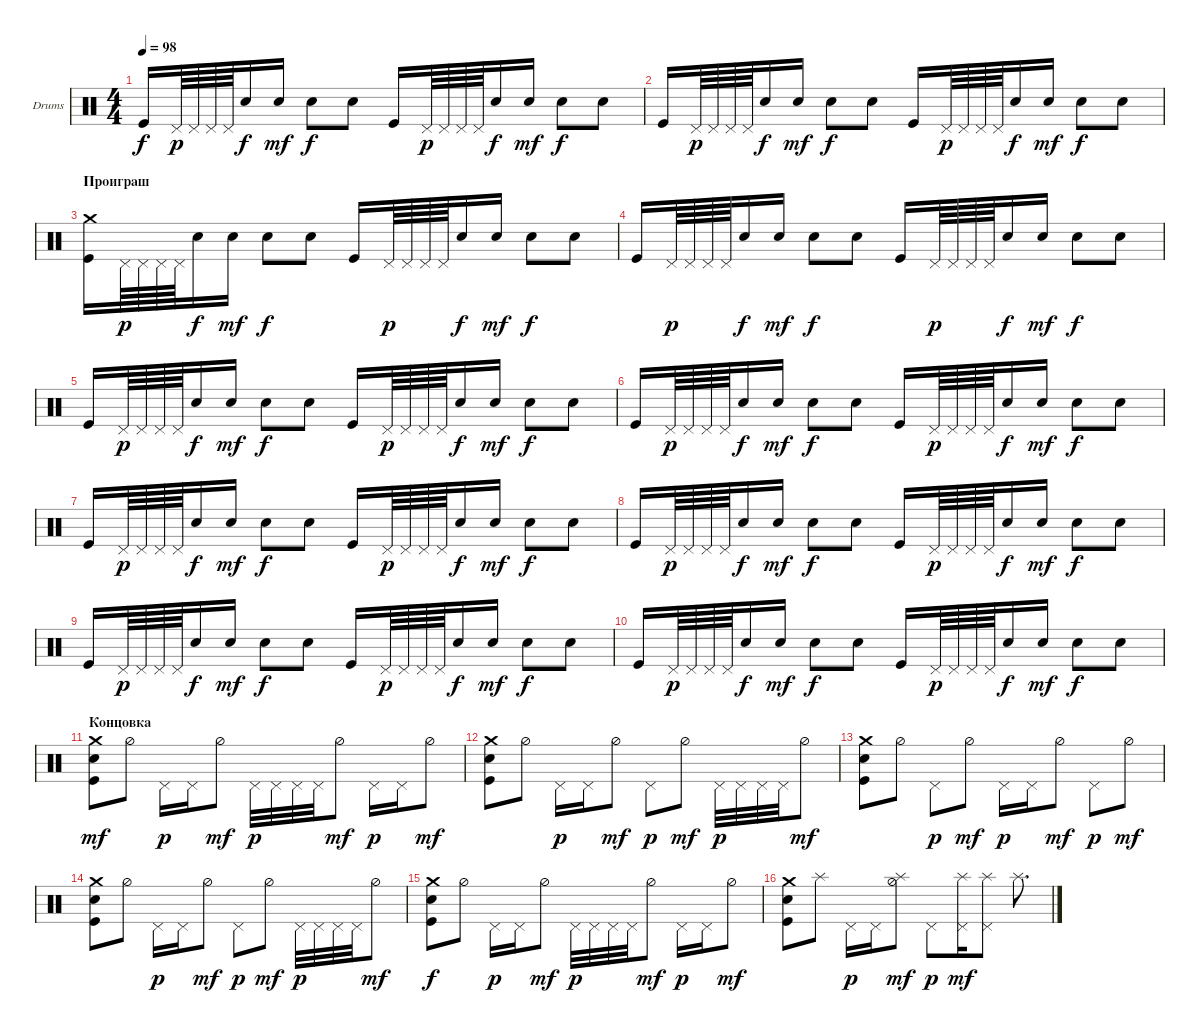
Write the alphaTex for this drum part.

\defaultSystemsLayout 4
\bracketExtendMode groupsimilarinstruments
\firstSystemTrackNameOrientation horizontal
\otherSystemsTrackNameOrientation horizontal
\track ("Е. Кулаков" "Drums") {instrument percussion}
\staff {score}
\articulation defaults
\ts (4 4)
\tempo 98
\clef neutral
\ks c "Kick (hit)".16{dy f} "Pedal Hi-Hat (hit)".64{dy p} "Pedal Hi-Hat (hit)".64 "Pedal Hi-Hat (hit)".64 "Pedal Hi-Hat (hit)".64 "Snare (hit) 2".16{dy f} "Snare (hit) 2".16{dy mf} "Snare (hit) 2".8{dy f} "Snare (hit) 2".8 "Kick (hit)".16 "Pedal Hi-Hat (hit)".64{dy p} "Pedal Hi-Hat (hit)".64 "Pedal Hi-Hat (hit)".64 "Pedal Hi-Hat (hit)".64 "Snare (hit) 2".16{dy f} "Snare (hit) 2".16{dy mf} "Snare (hit) 2".8{dy f} "Snare (hit) 2".8
|
"Kick (hit)".16 "Pedal Hi-Hat (hit)".64{dy p} "Pedal Hi-Hat (hit)".64 "Pedal Hi-Hat (hit)".64 "Pedal Hi-Hat (hit)".64 "Snare (hit) 2".16{dy f} "Snare (hit) 2".16{dy mf} "Snare (hit) 2".8{dy f} "Snare (hit) 2".8 "Kick (hit)".16 "Pedal Hi-Hat (hit)".64{dy p} "Pedal Hi-Hat (hit)".64 "Pedal Hi-Hat (hit)".64 "Pedal Hi-Hat (hit)".64 "Snare (hit) 2".16{dy f} "Snare (hit) 2".16{dy mf} "Snare (hit) 2".8{dy f} "Snare (hit) 2".8 |
\section ("" "Проиграш")
("Kick (hit)" "Crash medium (hit)").16 "Pedal Hi-Hat (hit)".64{dy p} "Pedal Hi-Hat (hit)".64 "Pedal Hi-Hat (hit)".64 "Pedal Hi-Hat (hit)".64 "Snare (hit) 2".16{dy f} "Snare (hit) 2".16{dy mf} "Snare (hit) 2".8{dy f} "Snare (hit) 2".8 "Kick (hit)".16 "Pedal Hi-Hat (hit)".64{dy p} "Pedal Hi-Hat (hit)".64 "Pedal Hi-Hat (hit)".64 "Pedal Hi-Hat (hit)".64 "Snare (hit) 2".16{dy f} "Snare (hit) 2".16{dy mf} "Snare (hit) 2".8{dy f} "Snare (hit) 2".8 |
"Kick (hit)".16 "Pedal Hi-Hat (hit)".64{dy p} "Pedal Hi-Hat (hit)".64 "Pedal Hi-Hat (hit)".64 "Pedal Hi-Hat (hit)".64 "Snare (hit) 2".16{dy f} "Snare (hit) 2".16{dy mf} "Snare (hit) 2".8{dy f} "Snare (hit) 2".8 "Kick (hit)".16 "Pedal Hi-Hat (hit)".64{dy p} "Pedal Hi-Hat (hit)".64 "Pedal Hi-Hat (hit)".64 "Pedal Hi-Hat (hit)".64 "Snare (hit) 2".16{dy f} "Snare (hit) 2".16{dy mf} "Snare (hit) 2".8{dy f} "Snare (hit) 2".8 |
"Kick (hit)".16 "Pedal Hi-Hat (hit)".64{dy p} "Pedal Hi-Hat (hit)".64 "Pedal Hi-Hat (hit)".64 "Pedal Hi-Hat (hit)".64 "Snare (hit) 2".16{dy f} "Snare (hit) 2".16{dy mf} "Snare (hit) 2".8{dy f} "Snare (hit) 2".8 "Kick (hit)".16 "Pedal Hi-Hat (hit)".64{dy p} "Pedal Hi-Hat (hit)".64 "Pedal Hi-Hat (hit)".64 "Pedal Hi-Hat (hit)".64 "Snare (hit) 2".16{dy f} "Snare (hit) 2".16{dy mf} "Snare (hit) 2".8{dy f} "Snare (hit) 2".8 |
"Kick (hit)".16 "Pedal Hi-Hat (hit)".64{dy p} "Pedal Hi-Hat (hit)".64 "Pedal Hi-Hat (hit)".64 "Pedal Hi-Hat (hit)".64 "Snare (hit) 2".16{dy f} "Snare (hit) 2".16{dy mf} "Snare (hit) 2".8{dy f} "Snare (hit) 2".8 "Kick (hit)".16 "Pedal Hi-Hat (hit)".64{dy p} "Pedal Hi-Hat (hit)".64 "Pedal Hi-Hat (hit)".64 "Pedal Hi-Hat (hit)".64 "Snare (hit) 2".16{dy f} "Snare (hit) 2".16{dy mf} "Snare (hit) 2".8{dy f} "Snare (hit) 2".8 |
"Kick (hit)".16 "Pedal Hi-Hat (hit)".64{dy p} "Pedal Hi-Hat (hit)".64 "Pedal Hi-Hat (hit)".64 "Pedal Hi-Hat (hit)".64 "Snare (hit) 2".16{dy f} "Snare (hit) 2".16{dy mf} "Snare (hit) 2".8{dy f} "Snare (hit) 2".8 "Kick (hit)".16 "Pedal Hi-Hat (hit)".64{dy p} "Pedal Hi-Hat (hit)".64 "Pedal Hi-Hat (hit)".64 "Pedal Hi-Hat (hit)".64 "Snare (hit) 2".16{dy f} "Snare (hit) 2".16{dy mf} "Snare (hit) 2".8{dy f} "Snare (hit) 2".8 |
"Kick (hit)".16 "Pedal Hi-Hat (hit)".64{dy p} "Pedal Hi-Hat (hit)".64 "Pedal Hi-Hat (hit)".64 "Pedal Hi-Hat (hit)".64 "Snare (hit) 2".16{dy f} "Snare (hit) 2".16{dy mf} "Snare (hit) 2".8{dy f} "Snare (hit) 2".8 "Kick (hit)".16 "Pedal Hi-Hat (hit)".64{dy p} "Pedal Hi-Hat (hit)".64 "Pedal Hi-Hat (hit)".64 "Pedal Hi-Hat (hit)".64 "Snare (hit) 2".16{dy f} "Snare (hit) 2".16{dy mf} "Snare (hit) 2".8{dy f} "Snare (hit) 2".8 |
"Kick (hit)".16 "Pedal Hi-Hat (hit)".64{dy p} "Pedal Hi-Hat (hit)".64 "Pedal Hi-Hat (hit)".64 "Pedal Hi-Hat (hit)".64 "Snare (hit) 2".16{dy f} "Snare (hit) 2".16{dy mf} "Snare (hit) 2".8{dy f} "Snare (hit) 2".8 "Kick (hit)".16 "Pedal Hi-Hat (hit)".64{dy p} "Pedal Hi-Hat (hit)".64 "Pedal Hi-Hat (hit)".64 "Pedal Hi-Hat (hit)".64 "Snare (hit) 2".16{dy f} "Snare (hit) 2".16{dy mf} "Snare (hit) 2".8{dy f} "Snare (hit) 2".8 |
"Kick (hit)".16 "Pedal Hi-Hat (hit)".64{dy p} "Pedal Hi-Hat (hit)".64 "Pedal Hi-Hat (hit)".64 "Pedal Hi-Hat (hit)".64 "Snare (hit) 2".16{dy f} "Snare (hit) 2".16{dy mf} "Snare (hit) 2".8{dy f} "Snare (hit) 2".8 "Kick (hit)".16 "Pedal Hi-Hat (hit)".64{dy p} "Pedal Hi-Hat (hit)".64 "Pedal Hi-Hat (hit)".64 "Pedal Hi-Hat (hit)".64 "Snare (hit) 2".16{dy f} "Snare (hit) 2".16{dy mf} "Snare (hit) 2".8{dy f} "Snare (hit) 2".8 |
\section ("" "Концовка")
("Kick (hit)" "Snare (hit) 2" "Crash medium (hit)").8{dy mf} "Hi-Hat (half)".8 "Pedal Hi-Hat (hit)".16{dy p} "Pedal Hi-Hat (hit)".16 "Hi-Hat (half)".8{dy mf} "Pedal Hi-Hat (hit)".32{dy p} "Pedal Hi-Hat (hit)".32 "Pedal Hi-Hat (hit)".32 "Pedal Hi-Hat (hit)".32 "Hi-Hat (half)".8{dy mf} "Pedal Hi-Hat (hit)".16{dy p} "Pedal Hi-Hat (hit)".16 "Hi-Hat (half)".8{dy mf} |
("Kick (hit)" "Snare (hit) 2" "Crash medium (hit)").8 "Hi-Hat (half)".8 "Pedal Hi-Hat (hit)".16{dy p} "Pedal Hi-Hat (hit)".16 "Hi-Hat (half)".8{dy mf} "Pedal Hi-Hat (hit)".8{dy p} "Hi-Hat (half)".8{dy mf} "Pedal Hi-Hat (hit)".32{dy p} "Pedal Hi-Hat (hit)".32 "Pedal Hi-Hat (hit)".32 "Pedal Hi-Hat (hit)".32 "Hi-Hat (half)".8{dy mf} |
("Kick (hit)" "Snare (hit) 2" "Crash medium (hit)").8 "Hi-Hat (half)".8 "Pedal Hi-Hat (hit)".8{dy p} "Hi-Hat (half)".8{dy mf} "Pedal Hi-Hat (hit)".16{dy p} "Pedal Hi-Hat (hit)".16 "Hi-Hat (half)".8{dy mf} "Pedal Hi-Hat (hit)".8{dy p} "Hi-Hat (half)".8{dy mf} |
("Kick (hit)" "Snare (hit) 2" "Crash medium (hit)").8 "Hi-Hat (half)".8 "Pedal Hi-Hat (hit)".16{dy p} "Pedal Hi-Hat (hit)".16 "Hi-Hat (half)".8{dy mf} "Pedal Hi-Hat (hit)".8{dy p} "Hi-Hat (half)".8{dy mf} "Pedal Hi-Hat (hit)".32{dy p} "Pedal Hi-Hat (hit)".32 "Pedal Hi-Hat (hit)".32 "Pedal Hi-Hat (hit)".32 "Hi-Hat (half)".8{dy mf} |
("Kick (hit)" "Snare (hit) 2" "Crash medium (hit)").8{dy f} "Hi-Hat (half)".8 "Pedal Hi-Hat (hit)".16{dy p} "Pedal Hi-Hat (hit)".16 "Hi-Hat (half)".8{dy mf} "Pedal Hi-Hat (hit)".32{dy p} "Pedal Hi-Hat (hit)".32 "Pedal Hi-Hat (hit)".32 "Pedal Hi-Hat (hit)".32 "Hi-Hat (half)".8{dy mf} "Pedal Hi-Hat (hit)".16{dy p} "Pedal Hi-Hat (hit)".16 "Hi-Hat (half)".8{dy mf} |
("Kick (hit)" "Snare (hit) 2" "Crash medium (hit)").8 "Splash (hit)".8 "Pedal Hi-Hat (hit)".16{dy p} "Pedal Hi-Hat (hit)".16 ("Hi-Hat (half)" "Splash (hit)").8{dy mf} "Pedal Hi-Hat (hit)".8{dy p} ("Pedal Hi-Hat (hit)" "Splash (hit)").16{dy mf} ("Pedal Hi-Hat (hit)" "Splash (hit)").8 "Splash (hit)".8{d}
